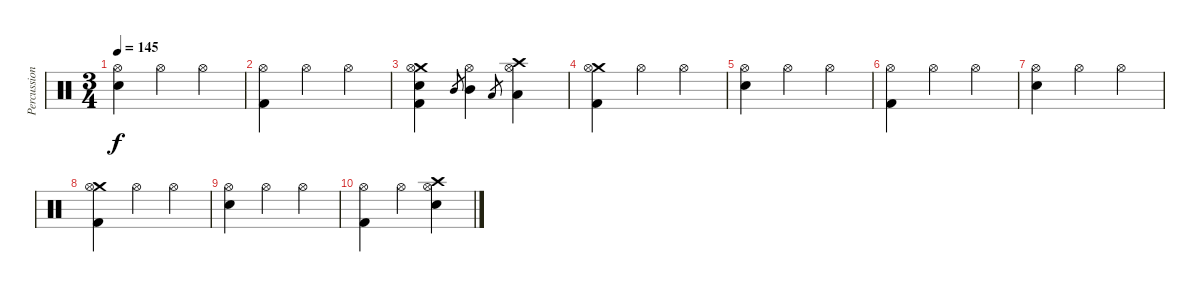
\track ("Percussion" "Percussion") {instrument percussion}
\staff {score}
\articulation defaults
\ts (3 4)
\tempo 145
\clef neutral
\ks c
("Hi-Hat (open)" "Electric Snare (hit)").4{dy f volume 5} "Hi-Hat (open)".4 "Hi-Hat (open)".4 |
("Hi-Hat (open)" "Kick (hit) 2").4 "Hi-Hat (open)".4 "Hi-Hat (open)".4 |
("Crash medium (hit)" "Hi-Hat (open)" "Electric Snare (hit)" "Kick (hit) 2").4{volume 3} "Mid Tom (hit)".8{gr} ("Hi-Hat (open)" "Mid Tom (hit)").4 "Low Tom (hit)".8{gr} ("Crash high (hit)" "Hi-Hat (open)" "Low Tom (hit)").4 |
("Crash medium (hit)" "Hi-Hat (open)" "Kick (hit) 2").4 "Hi-Hat (open)".4 "Hi-Hat (open)".4 |
("Hi-Hat (open)" "Electric Snare (hit)").4{volume 0} "Hi-Hat (open)".4 "Hi-Hat (open)".4 |
("Hi-Hat (open)" "Kick (hit) 2").4 "Hi-Hat (open)".4 "Hi-Hat (open)".4 |
("Hi-Hat (open)" "Electric Snare (hit)").4 "Hi-Hat (open)".4 "Hi-Hat (open)".4 |
("Crash medium (hit)" "Hi-Hat (open)" "Kick (hit) 2").4 "Hi-Hat (open)".4 "Hi-Hat (open)".4 |
("Hi-Hat (open)" "Electric Snare (hit)").4 "Hi-Hat (open)".4 "Hi-Hat (open)".4 |
("Hi-Hat (open)" "Kick (hit) 2").4 "Hi-Hat (open)".4 ("Crash high (hit)" "Hi-Hat (open)" "Electric Snare (hit)").4
